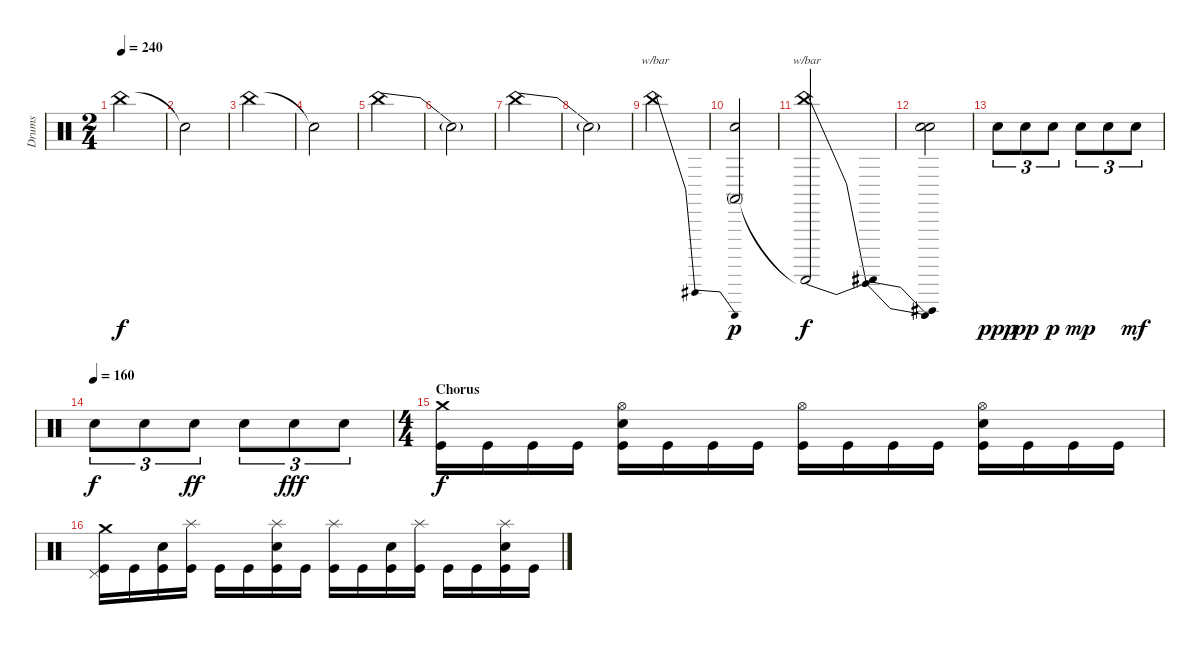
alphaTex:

\track ("Drums" "Drums") {instrument percussion}
\staff {score}
\articulation defaults
\ts (2 4)
\tempo 240
\clef neutral
\ks c "China (hit)".2{dy f}
|
"Snare (hit)"{t}.2 |
"China (hit)".2 |
"Snare (hit)"{t}.2 |
"China (hit)"{be (bend 0 0 60 7)}.2 |
"Snare (hit)"{t}.2 |
"China (hit)"{be (bend 0 0 60 12)}.2 |
"Snare (hit)"{t}.2 |
"China (hit)".2{tbe (dip default 0 0 30 20 60 0)} |
("Snare (hit)"{t} "Conga high (mute)").2{dy p} |
("China (hit)" "Guiro (scrap-return)"{t}).2{tbe (dip default 0 0 30 24 60 0) dy f} |
("Snare (hit)"{t} "Snare (hit)"{t}).2 |
"Electric Snare (hit)".8{tu (3 2) dy ppp} "Electric Snare (hit)".8{tu (3 2) dy pp} "Electric Snare (hit)".8{tu (3 2) dy p} "Electric Snare (hit)".8{tu (3 2) dy mp} "Electric Snare (hit)".8{tu (3 2)} "Electric Snare (hit)".8{tu (3 2) dy mf} |
\tempo (160)
"Electric Snare (hit)".8{tu (3 2) dy f} "Electric Snare (hit)".8{tu (3 2)} "Electric Snare (hit)".8{tu (3 2) dy ff} "Electric Snare (hit)".8{tu (3 2)} "Electric Snare (hit)".8{tu (3 2) dy fff} "Electric Snare (hit)".8{tu (3 2)} |
\ts (4 4)
\section ("" "Chorus")
("Crash medium (hit)" "Kick (hit)").16{dy f} "Kick (hit)".16 "Kick (hit)".16 "Kick (hit)".16 ("Hi-Hat (open)" "Electric Snare (hit)" "Kick (hit)").16 "Kick (hit)".16 "Kick (hit)".16 "Kick (hit)".16 ("Hi-Hat (open)" "Kick (hit)").16 "Kick (hit)".16 "Kick (hit)".16 "Kick (hit)".16 ("Hi-Hat (open)" "Electric Snare (hit)" "Kick (hit)").16 "Kick (hit)".16 "Kick (hit)".16 "Kick (hit)".16 |
("Crash medium (hit)" "Pedal Hi-Hat (hit)" "Kick (hit)").16 "Kick (hit)".16 ("Electric Snare (hit)" "Kick (hit)").16 ("Splash (hit)" "Kick (hit)").16 "Kick (hit)".16 "Kick (hit)".16 ("Splash (hit)" "Electric Snare (hit)" "Kick (hit)").16 "Kick (hit)".16 ("Splash (hit)" "Kick (hit)").16 "Kick (hit)".16 ("Electric Snare (hit)" "Kick (hit)").16 ("Splash (hit)" "Kick (hit)").16 "Kick (hit)".16 "Kick (hit)".16 ("Splash (hit)" "Electric Snare (hit)" "Kick (hit)").16 "Kick (hit)".16
